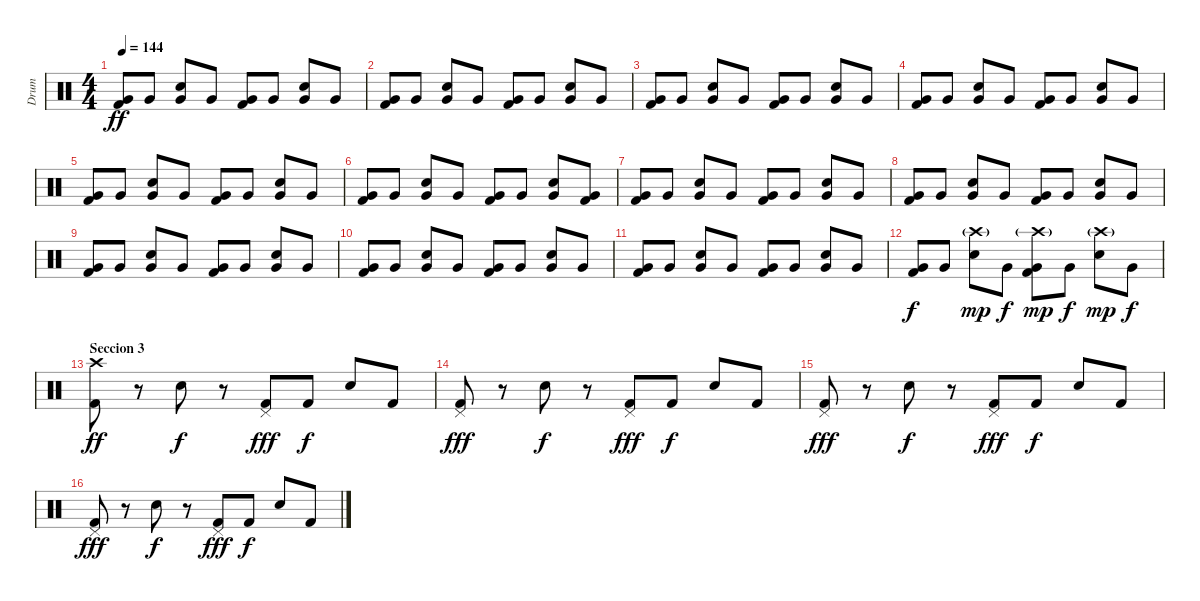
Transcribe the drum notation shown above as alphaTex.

\track ("Drum" "Drum") {instrument percussion}
\staff {score}
\articulation defaults
\ts (4 4)
\tempo 144
\clef neutral
\ks c
("Very Low Tom (hit)" "Kick (hit) 2").8{dy ff} "Very Low Tom (hit)".8 ("Electric Snare (hit)" "Very Low Tom (hit)").8 "Very Low Tom (hit)".8 ("Very Low Tom (hit)" "Kick (hit) 2").8 "Very Low Tom (hit)".8 ("Electric Snare (hit)" "Very Low Tom (hit)").8 "Very Low Tom (hit)".8 |
("Very Low Tom (hit)" "Kick (hit) 2").8 "Very Low Tom (hit)".8 ("Electric Snare (hit)" "Very Low Tom (hit)").8 "Very Low Tom (hit)".8 ("Very Low Tom (hit)" "Kick (hit) 2").8 "Very Low Tom (hit)".8 ("Electric Snare (hit)" "Very Low Tom (hit)").8 "Very Low Tom (hit)".8 |
("Very Low Tom (hit)" "Kick (hit) 2").8 "Very Low Tom (hit)".8 ("Electric Snare (hit)" "Very Low Tom (hit)").8 "Very Low Tom (hit)".8 ("Very Low Tom (hit)" "Kick (hit) 2").8 "Very Low Tom (hit)".8 ("Electric Snare (hit)" "Very Low Tom (hit)").8 "Very Low Tom (hit)".8 |
("Very Low Tom (hit)" "Kick (hit) 2").8 "Very Low Tom (hit)".8 ("Electric Snare (hit)" "Very Low Tom (hit)").8 "Very Low Tom (hit)".8 ("Very Low Tom (hit)" "Kick (hit) 2").8 "Very Low Tom (hit)".8 ("Electric Snare (hit)" "Very Low Tom (hit)").8 "Very Low Tom (hit)".8 |
("Very Low Tom (hit)" "Kick (hit) 2").8 "Very Low Tom (hit)".8 ("Electric Snare (hit)" "Very Low Tom (hit)").8 "Very Low Tom (hit)".8 ("Very Low Tom (hit)" "Kick (hit) 2").8 "Very Low Tom (hit)".8 ("Electric Snare (hit)" "Very Low Tom (hit)").8 "Very Low Tom (hit)".8 |
("Very Low Tom (hit)" "Kick (hit) 2").8 "Very Low Tom (hit)".8 ("Electric Snare (hit)" "Very Low Tom (hit)").8 "Very Low Tom (hit)".8 ("Very Low Tom (hit)" "Kick (hit) 2").8 "Very Low Tom (hit)".8 ("Electric Snare (hit)" "Very Low Tom (hit)").8 ("Very Low Tom (hit)" "Kick (hit) 2").8 |
("Very Low Tom (hit)" "Kick (hit) 2").8 "Very Low Tom (hit)".8 ("Electric Snare (hit)" "Very Low Tom (hit)").8 "Very Low Tom (hit)".8 ("Very Low Tom (hit)" "Kick (hit) 2").8 "Very Low Tom (hit)".8 ("Electric Snare (hit)" "Very Low Tom (hit)").8 "Very Low Tom (hit)".8 |
("Very Low Tom (hit)" "Kick (hit) 2").8 "Very Low Tom (hit)".8 ("Electric Snare (hit)" "Very Low Tom (hit)").8 "Very Low Tom (hit)".8 ("Very Low Tom (hit)" "Kick (hit) 2").8 "Very Low Tom (hit)".8 ("Electric Snare (hit)" "Very Low Tom (hit)").8 "Very Low Tom (hit)".8 |
("Very Low Tom (hit)" "Kick (hit) 2").8 "Very Low Tom (hit)".8 ("Electric Snare (hit)" "Very Low Tom (hit)").8 "Very Low Tom (hit)".8 ("Very Low Tom (hit)" "Kick (hit) 2").8 "Very Low Tom (hit)".8 ("Electric Snare (hit)" "Very Low Tom (hit)").8 "Very Low Tom (hit)".8 |
("Very Low Tom (hit)" "Kick (hit) 2").8 "Very Low Tom (hit)".8 ("Electric Snare (hit)" "Very Low Tom (hit)").8 "Very Low Tom (hit)".8 ("Very Low Tom (hit)" "Kick (hit) 2").8 "Very Low Tom (hit)".8 ("Electric Snare (hit)" "Very Low Tom (hit)").8 "Very Low Tom (hit)".8 |
("Very Low Tom (hit)" "Kick (hit) 2").8 "Very Low Tom (hit)".8 ("Electric Snare (hit)" "Very Low Tom (hit)").8 "Very Low Tom (hit)".8 ("Very Low Tom (hit)" "Kick (hit) 2").8 "Very Low Tom (hit)".8 ("Electric Snare (hit)" "Very Low Tom (hit)").8 "Very Low Tom (hit)".8 |
("Very Low Tom (hit)" "Kick (hit) 2").8{dy f} "Very Low Tom (hit)".8 ("Crash high (hit)"{g} "Electric Snare (hit)").8{dy mp} "Very Low Tom (hit)".8{dy f} ("Crash high (hit)"{g} "Very Low Tom (hit)" "Kick (hit) 2").8{dy mp} "Very Low Tom (hit)".8{dy f} ("Crash high (hit)"{g} "Electric Snare (hit)").8{dy mp} "Very Low Tom (hit)".8{dy f} |
\section ("" "Seccion 3")
("Crash high (hit)" "Kick (hit) 2").8{dy ff} r.8 "Electric Snare (hit)".8{dy f} r.8 ("Pedal Hi-Hat (hit)" "Kick (hit) 2").8{dy fff} "Kick (hit) 2".8{dy f} "Electric Snare (hit)".8 "Kick (hit) 2".8 |
("Pedal Hi-Hat (hit)" "Kick (hit) 2").8{dy fff} r.8 "Electric Snare (hit)".8{dy f} r.8 ("Pedal Hi-Hat (hit)" "Kick (hit) 2").8{dy fff} "Kick (hit) 2".8{dy f} "Electric Snare (hit)".8 "Kick (hit) 2".8 |
("Pedal Hi-Hat (hit)" "Kick (hit) 2").8{dy fff} r.8 "Electric Snare (hit)".8{dy f} r.8 ("Pedal Hi-Hat (hit)" "Kick (hit) 2").8{dy fff} "Kick (hit) 2".8{dy f} "Electric Snare (hit)".8 "Kick (hit) 2".8 |
("Pedal Hi-Hat (hit)" "Kick (hit) 2").8{dy fff} r.8 "Electric Snare (hit)".8{dy f} r.8 ("Pedal Hi-Hat (hit)" "Kick (hit) 2").8{dy fff} "Kick (hit) 2".8{dy f} "Electric Snare (hit)".8 "Kick (hit) 2".8
